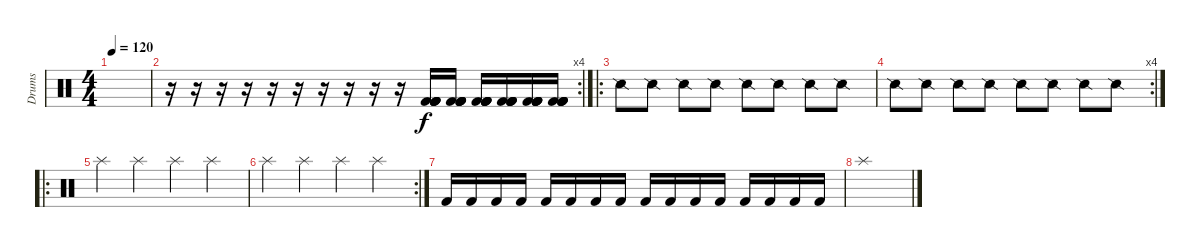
\track ("Drums" "Drums") {instrument percussion}
\staff {score}
\articulation defaults
\ts (4 4)
\tempo 120
\clef neutral
\ks c
|
\rc 4
r.16 r.16 r.16 r.16 r.16 r.16 r.16 r.16 r.16 r.16 ("Kick (hit) 2" "Kick (hit) 2" "Kick (hit) 2" "Kick (hit) 2" "Kick (hit) 2").16 ("Kick (hit) 2" "Kick (hit) 2" "Kick (hit) 2" "Kick (hit) 2" "Kick (hit) 2").16 ("Kick (hit) 2" "Kick (hit) 2" "Kick (hit) 2" "Kick (hit) 2" "Kick (hit) 2").16 ("Kick (hit) 2" "Kick (hit) 2" "Kick (hit) 2" "Kick (hit) 2" "Kick (hit) 2").16 ("Kick (hit) 2" "Kick (hit) 2" "Kick (hit) 2" "Kick (hit) 2" "Kick (hit) 2").16 ("Kick (hit) 2" "Kick (hit) 2" "Kick (hit) 2" "Kick (hit) 2" "Kick (hit) 2").16 |
\ro "Snare (side stick) 2".8 "Snare (side stick) 2".8 "Snare (side stick) 2".8 "Snare (side stick) 2".8 "Snare (side stick) 2".8 "Snare (side stick) 2".8 "Snare (side stick) 2".8 "Snare (side stick) 2".8
|
\rc 4 "Snare (side stick) 2".8 "Snare (side stick) 2".8 "Snare (side stick) 2".8 "Snare (side stick) 2".8 "Snare (side stick) 2".8 "Snare (side stick) 2".8 "Snare (side stick) 2".8 "Snare (side stick) 2".8
|
\ro "Splash (hit)".4 "Splash (hit)".4 "Splash (hit)".4 "Splash (hit)".4
|
\rc 2 "Splash (hit)".4 "Splash (hit)".4 "Splash (hit)".4 "Splash (hit)".4
|
"Kick (hit) 2".16 "Kick (hit) 2".16 "Kick (hit) 2".16 "Kick (hit) 2".16 "Kick (hit) 2".16 "Kick (hit) 2".16 "Kick (hit) 2".16 "Kick (hit) 2".16 "Kick (hit) 2".16 "Kick (hit) 2".16 "Kick (hit) 2".16 "Kick (hit) 2".16 "Kick (hit) 2".16 "Kick (hit) 2".16 "Kick (hit) 2".16 "Kick (hit) 2".16 |
"Splash (hit)".1
